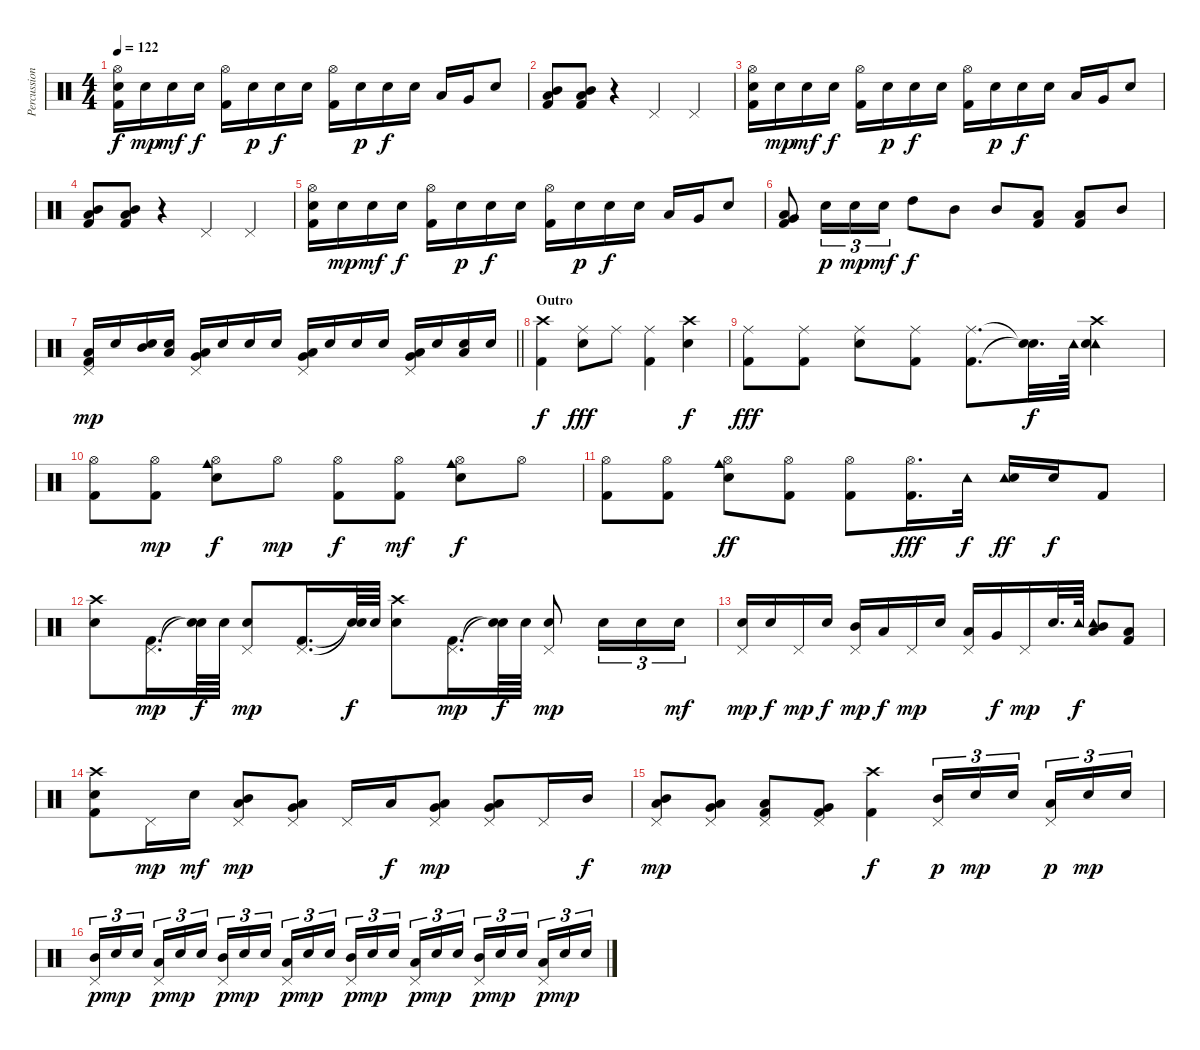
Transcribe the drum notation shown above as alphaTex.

\track ("Percussion (Peter)" "Percussion") {instrument percussion}
\staff {score}
\articulation defaults
\ts (4 4)
\tempo 122
\clef neutral
\ks c
("Hi-Hat (open)" "Snare (hit) 2" "Kick (hit) 2").16{dy f} "Snare (hit) 2".16{dy mp} "Snare (hit) 2".16{dy mf} "Snare (hit) 2".16{dy f} ("Hi-Hat (open)" "Kick (hit) 2").16 "Snare (hit) 2".16{dy p} "Snare (hit) 2".16{dy f} "Snare (hit) 2".16 ("Hi-Hat (open)" "Kick (hit) 2").16 "Snare (hit) 2".16{dy p} "Snare (hit) 2".16{dy f} "Snare (hit) 2".16 "Low Tom (hit)".16 "Very Low Tom (hit)".16 "Snare (hit) 2".8 |
("Mid Tom (hit)" "Low Tom (hit)" "Kick (hit) 2").8 ("Mid Tom (hit)" "Low Tom (hit)" "Kick (hit) 2").8 r.4 "Pedal Hi-Hat (hit)".4 "Pedal Hi-Hat (hit)".4 |
("Hi-Hat (open)" "Snare (hit) 2" "Kick (hit) 2").16 "Snare (hit) 2".16{dy mp} "Snare (hit) 2".16{dy mf} "Snare (hit) 2".16{dy f} ("Hi-Hat (open)" "Kick (hit) 2").16 "Snare (hit) 2".16{dy p} "Snare (hit) 2".16{dy f} "Snare (hit) 2".16 ("Hi-Hat (open)" "Kick (hit) 2").16 "Snare (hit) 2".16{dy p} "Snare (hit) 2".16{dy f} "Snare (hit) 2".16 "Low Tom (hit)".16 "Very Low Tom (hit)".16 "Snare (hit) 2".8 |
("Mid Tom (hit)" "Low Tom (hit)" "Kick (hit) 2").8 ("Mid Tom (hit)" "Low Tom (hit)" "Kick (hit) 2").8 r.4 "Pedal Hi-Hat (hit)".4 "Pedal Hi-Hat (hit)".4 |
("Hi-Hat (open)" "Snare (hit) 2" "Kick (hit) 2").16 "Snare (hit) 2".16{dy mp} "Snare (hit) 2".16{dy mf} "Snare (hit) 2".16{dy f} ("Hi-Hat (open)" "Kick (hit) 2").16 "Snare (hit) 2".16{dy p} "Snare (hit) 2".16{dy f} "Snare (hit) 2".16 ("Hi-Hat (open)" "Kick (hit) 2").16 "Snare (hit) 2".16{dy p} "Snare (hit) 2".16{dy f} "Snare (hit) 2".16 "Low Tom (hit)".16 "Very Low Tom (hit)".16 "Snare (hit) 2".8 |
("Low Tom (hit)" "Very Low Tom (hit)" "Kick (hit) 2").8 "Snare (hit) 2".16{tu (3 2) dy p} "Snare (hit) 2".16{tu (3 2) dy mp} "Snare (hit) 2".16{tu (3 2) dy mf} "High Tom (hit)".8{dy f} "Mid Tom (hit)".8 "Mid Tom (hit)".8 ("Low Tom (hit)" "Kick (hit) 2").8 ("Low Tom (hit)" "Kick (hit) 2").8 "Mid Tom (hit)".8 |
\barLineRight lightlight
("Pedal Hi-Hat (hit)" "Low Tom (hit)" "Kick (hit) 2").16{dy mp} "Snare (hit) 2".16 ("Mid Tom (hit)" "Snare (hit) 2").16 ("Low Tom (hit)" "Snare (hit) 2").16 ("Pedal Hi-Hat (hit)" "Low Tom (hit)" "Very Low Tom (hit)").16 "Snare (hit) 2".16 "Snare (hit) 2".16 "Snare (hit) 2".16 ("Pedal Hi-Hat (hit)" "Very Low Tom (hit)" "Low Floor Tom (hit)").16 "Snare (hit) 2".16 "Snare (hit) 2".16 "Snare (hit) 2".16 ("Pedal Hi-Hat (hit)" "Low Tom (hit)" "Very Low Tom (hit)").16 "Snare (hit) 2".16 ("Low Floor Tom (hit)" "Snare (hit) 2").16 "Snare (hit) 2".16 |
\section ("" "Outro")
("Crash high (hit)" "Kick (hit) 2").4{dy f} ("Ride (middle)" "Snare (hit) 2").8{dy fff} "Ride (middle)".8 ("Ride (middle)" "Kick (hit) 2").4 ("Crash high (hit)" "Snare (hit) 2").4{dy f} |
("Ride (middle)" "Kick (hit) 2").8{dy fff} ("Ride (middle)" "Kick (hit) 2").8 ("Ride (middle)" "Snare (hit) 2").8 ("Ride (middle)" "Kick (hit) 2").8 ("Ride (middle)" "Kick (hit) 2").8{d} ("Snare (hit)"{t} "Snare (hit)"{t}).32{d dy f} "Tambourine (hit)".64 ("Crash high (hit)" "Tambourine (hit)" "Snare (hit) 2").4 |
("Hi-Hat (open)" "Kick (hit) 2").8 ("Hi-Hat (open)" "Kick (hit) 2").8{dy mp} ("Cowbell medium (hit)" "Hi-Hat (open)" "Snare (hit) 2").8{dy f} "Hi-Hat (open)".8{dy mp} ("Hi-Hat (open)" "Kick (hit) 2").8{dy f} ("Hi-Hat (open)" "Kick (hit) 2").8{dy mf} ("Cowbell medium (hit)" "Hi-Hat (open)" "Snare (hit) 2").8{dy f} "Hi-Hat (open)".8 |
("Hi-Hat (open)" "Kick (hit) 2").8 ("Hi-Hat (open)" "Kick (hit) 2").8 ("Cowbell medium (hit)" "Hi-Hat (open)" "Snare (hit) 2").8{dy ff} ("Hi-Hat (open)" "Kick (hit) 2").8 ("Hi-Hat (open)" "Kick (hit) 2").8 ("Hi-Hat (open)" "Kick (hit) 2").16{d dy fff} "Tambourine (hit)".32{dy f} ("Tambourine (hit)" "Snare (hit) 2").16{dy ff} "Snare (hit) 2".16{dy f} "Kick (hit) 2".8 |
("Crash high (hit)" "Snare (hit) 2").8 ("Pedal Hi-Hat (hit)" "Kick (hit) 2").16{d dy mp} ("Snare (hit)"{t} "Snare (hit)"{t}).64{dy f} "Snare (hit) 2".64 ("Pedal Hi-Hat (hit)" "Snare (hit) 2").8{dy mp} ("Pedal Hi-Hat (hit)" "Kick (hit) 2").16{d} ("Snare (hit)"{t} "Snare (hit)"{t}).64{dy f} "Snare (hit) 2".64 ("Crash high (hit)" "Snare (hit) 2").8 ("Pedal Hi-Hat (hit)" "Kick (hit) 2").16{d dy mp} ("Snare (hit)"{t} "Snare (hit)"{t}).64{dy f} "Snare (hit) 2".64 ("Pedal Hi-Hat (hit)" "Snare (hit) 2").8{dy mp} "Snare (hit) 2".16{tu (3 2)} "Snare (hit) 2".16{tu (3 2)} "Snare (hit) 2".16{tu (3 2) dy mf} |
("Pedal Hi-Hat (hit)" "Snare (hit) 2").16{dy mp} "Snare (hit) 2".16{dy f} "Pedal Hi-Hat (hit)".16{dy mp} "Snare (hit) 2".16{dy f} ("Pedal Hi-Hat (hit)" "Mid Tom (hit)").16{dy mp} "Low Tom (hit)".16{dy f} "Pedal Hi-Hat (hit)".16{dy mp} "Snare (hit) 2".16 ("Pedal Hi-Hat (hit)" "Low Tom (hit)").16 "Very Low Tom (hit)".16{dy f} "Pedal Hi-Hat (hit)".16{dy mp} "Snare (hit) 2".32{d} "Tambourine (hit)".64{dy f} ("Tambourine (hit)" "Mid Tom (hit)" "Low Tom (hit)").8 ("Low Floor Tom (hit)" "Kick (hit) 2").8 |
("Crash high (hit)" "Snare (hit) 2" "Kick (hit) 2").8 "Pedal Hi-Hat (hit)".16{dy mp} "Snare (hit) 2".16{dy mf} ("Pedal Hi-Hat (hit)" "Mid Tom (hit)" "Low Tom (hit)").8{dy mp} ("Pedal Hi-Hat (hit)" "Low Tom (hit)" "Very Low Tom (hit)").8 "Pedal Hi-Hat (hit)".16 "Low Tom (hit)".16{dy f} ("Pedal Hi-Hat (hit)" "Low Tom (hit)" "Very Low Tom (hit)").8{dy mp} ("Pedal Hi-Hat (hit)" "Very Low Tom (hit)" "Low Floor Tom (hit)").8 "Pedal Hi-Hat (hit)".16 "Mid Tom (hit)".16{dy f} |
("Pedal Hi-Hat (hit)" "Mid Tom (hit)" "Low Tom (hit)").8{dy mp} ("Pedal Hi-Hat (hit)" "Low Tom (hit)" "Very Low Tom (hit)").8 ("Pedal Hi-Hat (hit)" "Low Tom (hit)" "Kick (hit) 2").8 ("Pedal Hi-Hat (hit)" "Very Low Tom (hit)" "Kick (hit) 2").8 ("Crash high (hit)" "Kick (hit) 2").4{dy f} ("Pedal Hi-Hat (hit)" "Mid Tom (hit)").16{tu (3 2) dy p} "Snare (hit) 2".16{tu (3 2) dy mp} "Snare (hit) 2".16{tu (3 2) beam splitsecondary} ("Pedal Hi-Hat (hit)" "Low Tom (hit)").16{tu (3 2) dy p} "Snare (hit) 2".16{tu (3 2) dy mp} "Snare (hit) 2".16{tu (3 2)} |
("Pedal Hi-Hat (hit)" "Mid Tom (hit)").16{tu (3 2) dy p} "Snare (hit) 2".16{tu (3 2) dy mp} "Snare (hit) 2".16{tu (3 2) beam splitsecondary} ("Pedal Hi-Hat (hit)" "Low Tom (hit)").16{tu (3 2) dy p} "Snare (hit) 2".16{tu (3 2) dy mp} "Snare (hit) 2".16{tu (3 2)} ("Pedal Hi-Hat (hit)" "Mid Tom (hit)").16{tu (3 2) dy p} "Snare (hit) 2".16{tu (3 2) dy mp} "Snare (hit) 2".16{tu (3 2) beam splitsecondary} ("Pedal Hi-Hat (hit)" "Low Tom (hit)").16{tu (3 2) dy p} "Snare (hit) 2".16{tu (3 2) dy mp} "Snare (hit) 2".16{tu (3 2)} ("Pedal Hi-Hat (hit)" "Mid Tom (hit)").16{tu (3 2) dy p} "Snare (hit) 2".16{tu (3 2) dy mp} "Snare (hit) 2".16{tu (3 2) beam splitsecondary} ("Pedal Hi-Hat (hit)" "Low Tom (hit)").16{tu (3 2) dy p} "Snare (hit) 2".16{tu (3 2) dy mp} "Snare (hit) 2".16{tu (3 2)} ("Pedal Hi-Hat (hit)" "Mid Tom (hit)").16{tu (3 2) dy p} "Snare (hit) 2".16{tu (3 2) dy mp} "Snare (hit) 2".16{tu (3 2) beam splitsecondary} ("Pedal Hi-Hat (hit)" "Low Tom (hit)").16{tu (3 2) dy p} "Snare (hit) 2".16{tu (3 2) dy mp} "Snare (hit) 2".16{tu (3 2)}
